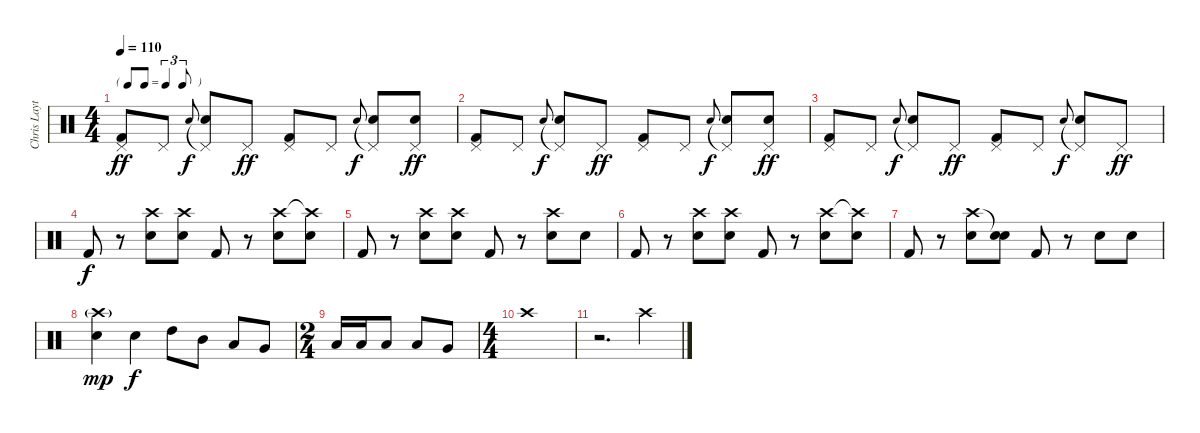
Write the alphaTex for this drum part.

\track ("Chris Layton" "Chris Layt") {instrument percussion}
\staff {score}
\articulation defaults
\ts (4 4)
\tf triplet8th
\tempo 110
\clef neutral
\ks c
("Pedal Hi-Hat (hit)" "Kick (hit) 2").8{dy ff} "Pedal Hi-Hat (hit)".8 "Snare (hit) 2".8{gr onbeat dy f} ("Pedal Hi-Hat (hit)"{t} "Snare (hit) 2").8 "Pedal Hi-Hat (hit)".8{dy ff} ("Pedal Hi-Hat (hit)" "Kick (hit) 2").8 "Pedal Hi-Hat (hit)".8 "Snare (hit) 2".8{gr onbeat dy f} ("Pedal Hi-Hat (hit)"{t} "Snare (hit) 2").8 ("Pedal Hi-Hat (hit)" "Snare (hit) 2").8{dy ff} |
("Pedal Hi-Hat (hit)" "Kick (hit) 2").8 "Pedal Hi-Hat (hit)".8 "Snare (hit) 2".8{gr onbeat dy f} ("Pedal Hi-Hat (hit)"{t} "Snare (hit) 2").8 "Pedal Hi-Hat (hit)".8{dy ff} ("Pedal Hi-Hat (hit)" "Kick (hit) 2").8 "Pedal Hi-Hat (hit)".8 "Snare (hit) 2".8{gr onbeat dy f} ("Pedal Hi-Hat (hit)"{t} "Snare (hit) 2").8 ("Pedal Hi-Hat (hit)" "Snare (hit) 2").8{dy ff} |
("Pedal Hi-Hat (hit)" "Kick (hit) 2").8 "Pedal Hi-Hat (hit)".8 "Snare (hit) 2".8{gr onbeat dy f} ("Pedal Hi-Hat (hit)"{t} "Snare (hit) 2").8 "Pedal Hi-Hat (hit)".8{dy ff} ("Pedal Hi-Hat (hit)" "Kick (hit) 2").8 "Pedal Hi-Hat (hit)".8 "Snare (hit) 2".8{gr onbeat dy f} ("Pedal Hi-Hat (hit)"{t} "Snare (hit) 2").8 "Pedal Hi-Hat (hit)".8{dy ff} |
"Kick (hit) 2".8{dy f} r.8 ("Crash high (hit)" "Snare (hit) 2").8 ("Crash high (hit)" "Snare (hit) 2").8 "Kick (hit) 2".8 r.8 ("Crash high (hit)" "Snare (hit) 2").8 ("Crash high (hit)"{t} "Snare (hit) 2").8 |
"Kick (hit) 2".8 r.8 ("Crash high (hit)" "Snare (hit) 2").8 ("Crash high (hit)" "Snare (hit) 2").8 "Kick (hit) 2".8 r.8 ("Crash high (hit)" "Snare (hit) 2").8 "Snare (hit) 2".8 |
"Kick (hit) 2".8 r.8 ("Crash high (hit)" "Snare (hit) 2").8 ("Crash high (hit)" "Snare (hit) 2").8 "Kick (hit) 2".8 r.8 ("Crash high (hit)" "Snare (hit) 2").8 ("Crash high (hit)"{t} "Snare (hit) 2").8 |
"Kick (hit) 2".8 r.8 ("Crash high (hit)" "Snare (hit) 2").8 ("Snare (hit)"{t} "Snare (hit) 2").8 "Kick (hit) 2".8 r.8 "Snare (hit) 2".8 "Snare (hit) 2".8 |
("Crash high (hit)"{g} "Snare (hit) 2").4{dy mp} "Electric Snare (hit)".4{dy f} "High Tom (hit)".8 "Mid Tom (hit)".8 "Low Tom (hit)".8 "Very Low Tom (hit)".8 |
\ts (2 4)
"Low Tom (hit)".16 "Low Tom (hit)".16 "Low Tom (hit)".8 "Low Floor Tom (hit)".8 "Very Low Tom (hit)".8 |
\ts (4 4)
"Crash high (hit)".1 |
r.2{d} "Crash high (hit)".4
